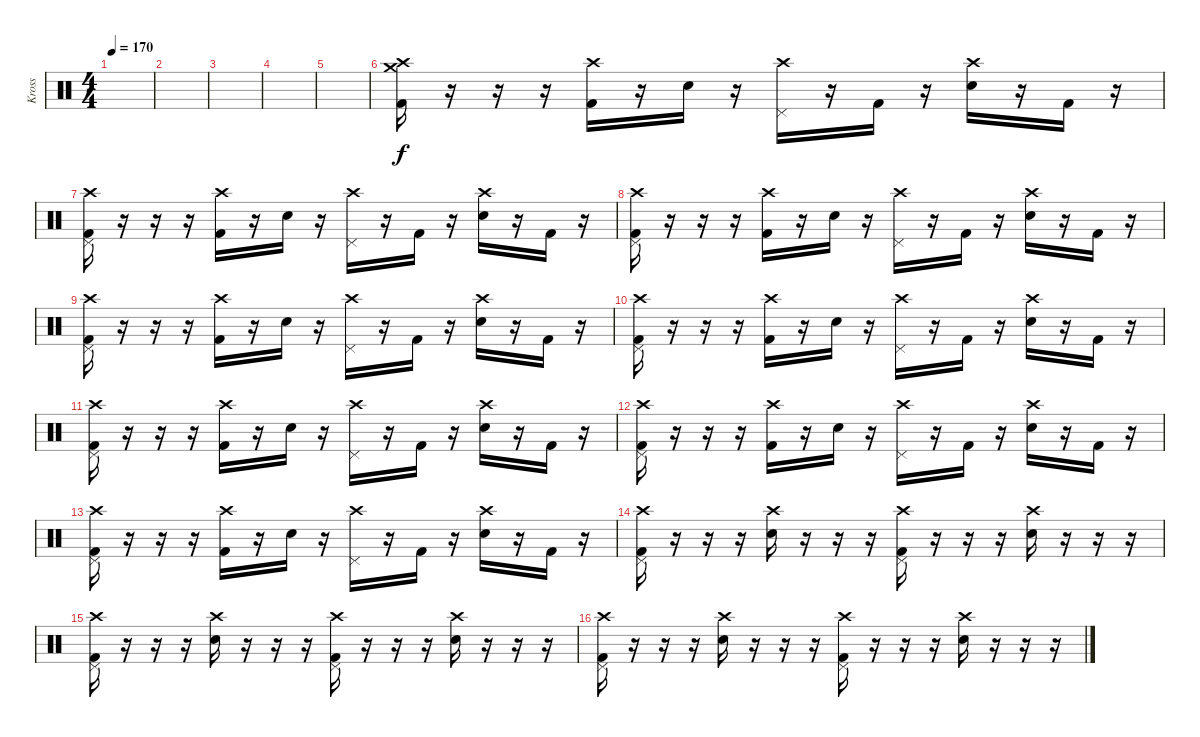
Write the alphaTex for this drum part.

\track ("Kross" "Kross") {instrument percussion}
\staff {score}
\articulation defaults
\ts (4 4)
\tempo 170
\clef neutral
\ks c
|
|
|
|
|
("Crash medium (hit)" "Crash high (hit)" "Kick (hit) 2").16 r.16 r.16 r.16 ("Crash high (hit)" "Kick (hit) 2").16 r.16 "Electric Snare (hit)".16 r.16 ("Pedal Hi-Hat (hit)" "Crash high (hit)").16 r.16 "Kick (hit) 2".16 r.16 ("Crash high (hit)" "Electric Snare (hit)").16 r.16 "Kick (hit) 2".16 r.16 |
("Pedal Hi-Hat (hit)" "Crash high (hit)" "Kick (hit) 2").16 r.16 r.16 r.16 ("Crash high (hit)" "Kick (hit) 2").16 r.16 "Electric Snare (hit)".16 r.16 ("Pedal Hi-Hat (hit)" "Crash high (hit)").16 r.16 "Kick (hit) 2".16 r.16 ("Crash high (hit)" "Electric Snare (hit)").16 r.16 "Kick (hit) 2".16 r.16 |
("Pedal Hi-Hat (hit)" "Crash high (hit)" "Kick (hit) 2").16 r.16 r.16 r.16 ("Crash high (hit)" "Kick (hit) 2").16 r.16 "Electric Snare (hit)".16 r.16 ("Pedal Hi-Hat (hit)" "Crash high (hit)").16 r.16 "Kick (hit) 2".16 r.16 ("Crash high (hit)" "Electric Snare (hit)").16 r.16 "Kick (hit) 2".16 r.16 |
("Pedal Hi-Hat (hit)" "Crash high (hit)" "Kick (hit) 2").16 r.16 r.16 r.16 ("Crash high (hit)" "Kick (hit) 2").16 r.16 "Electric Snare (hit)".16 r.16 ("Pedal Hi-Hat (hit)" "Crash high (hit)").16 r.16 "Kick (hit) 2".16 r.16 ("Crash high (hit)" "Electric Snare (hit)").16 r.16 "Kick (hit) 2".16 r.16 |
("Pedal Hi-Hat (hit)" "Crash high (hit)" "Kick (hit) 2").16 r.16 r.16 r.16 ("Crash high (hit)" "Kick (hit) 2").16 r.16 "Electric Snare (hit)".16 r.16 ("Pedal Hi-Hat (hit)" "Crash high (hit)").16 r.16 "Kick (hit) 2".16 r.16 ("Crash high (hit)" "Electric Snare (hit)").16 r.16 "Kick (hit) 2".16 r.16 |
("Pedal Hi-Hat (hit)" "Crash high (hit)" "Kick (hit) 2").16 r.16 r.16 r.16 ("Crash high (hit)" "Kick (hit) 2").16 r.16 "Electric Snare (hit)".16 r.16 ("Pedal Hi-Hat (hit)" "Crash high (hit)").16 r.16 "Kick (hit) 2".16 r.16 ("Crash high (hit)" "Electric Snare (hit)").16 r.16 "Kick (hit) 2".16 r.16 |
("Pedal Hi-Hat (hit)" "Crash high (hit)" "Kick (hit) 2").16 r.16 r.16 r.16 ("Crash high (hit)" "Kick (hit) 2").16 r.16 "Electric Snare (hit)".16 r.16 ("Pedal Hi-Hat (hit)" "Crash high (hit)").16 r.16 "Kick (hit) 2".16 r.16 ("Crash high (hit)" "Electric Snare (hit)").16 r.16 "Kick (hit) 2".16 r.16 |
("Pedal Hi-Hat (hit)" "Crash high (hit)" "Kick (hit) 2").16 r.16 r.16 r.16 ("Crash high (hit)" "Kick (hit) 2").16 r.16 "Electric Snare (hit)".16 r.16 ("Pedal Hi-Hat (hit)" "Crash high (hit)").16 r.16 "Kick (hit) 2".16 r.16 ("Crash high (hit)" "Electric Snare (hit)").16 r.16 "Kick (hit) 2".16 r.16 |
("Crash high (hit)" "Pedal Hi-Hat (hit)" "Kick (hit) 2").16 r.16 r.16 r.16 ("Crash high (hit)" "Electric Snare (hit)").16 r.16 r.16 r.16 ("Crash high (hit)" "Pedal Hi-Hat (hit)" "Kick (hit) 2").16 r.16 r.16 r.16 ("Crash high (hit)" "Electric Snare (hit)").16 r.16 r.16 r.16 |
("Crash high (hit)" "Pedal Hi-Hat (hit)" "Kick (hit) 2").16 r.16 r.16 r.16 ("Crash high (hit)" "Electric Snare (hit)").16 r.16 r.16 r.16 ("Crash high (hit)" "Pedal Hi-Hat (hit)" "Kick (hit) 2").16 r.16 r.16 r.16 ("Crash high (hit)" "Electric Snare (hit)").16 r.16 r.16 r.16 |
("Crash high (hit)" "Pedal Hi-Hat (hit)" "Kick (hit) 2").16 r.16 r.16 r.16 ("Crash high (hit)" "Electric Snare (hit)").16 r.16 r.16 r.16 ("Crash high (hit)" "Pedal Hi-Hat (hit)" "Kick (hit) 2").16 r.16 r.16 r.16 ("Crash high (hit)" "Electric Snare (hit)").16 r.16 r.16 r.16
